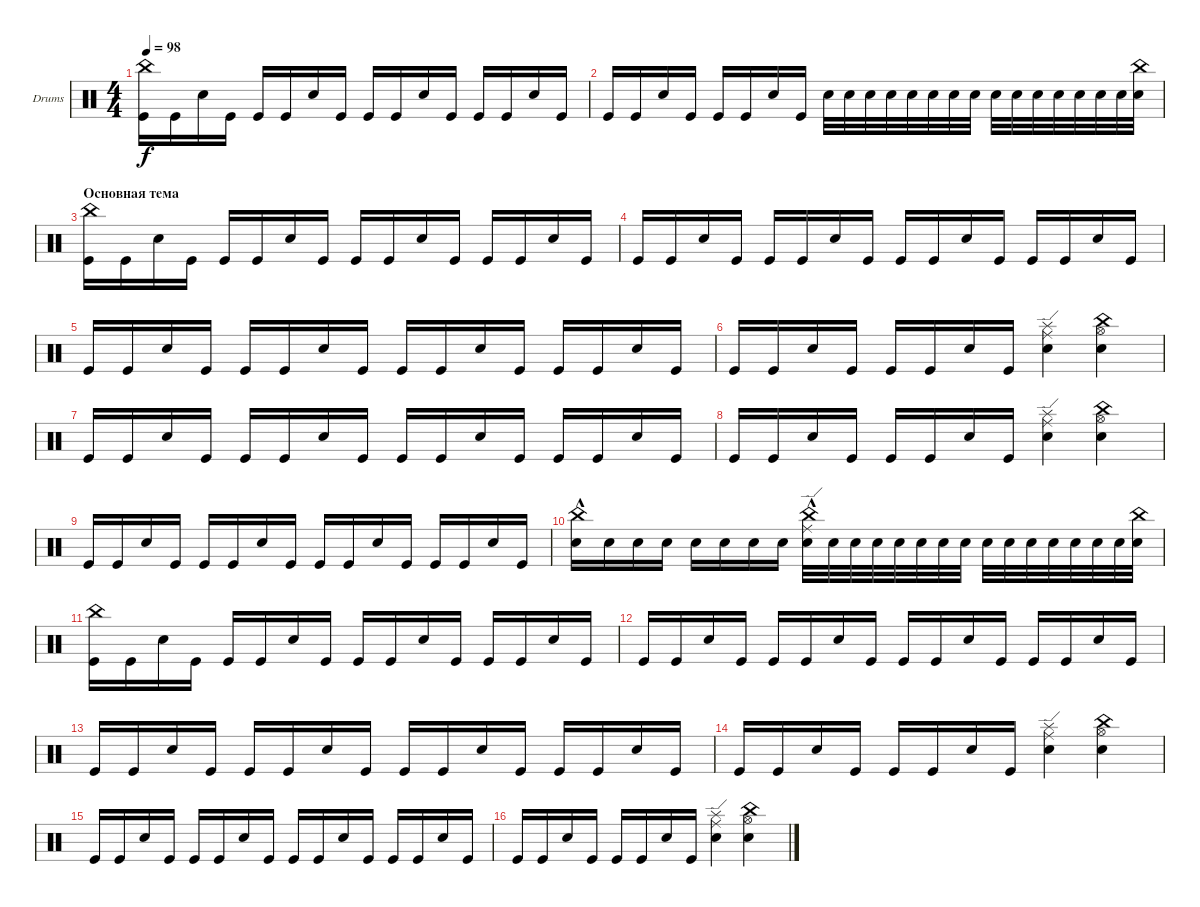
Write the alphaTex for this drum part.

\defaultSystemsLayout 4
\bracketExtendMode groupsimilarinstruments
\firstSystemTrackNameOrientation horizontal
\otherSystemsTrackNameOrientation horizontal
\track ("Drumkit" "Drums") {instrument percussion}
\staff {score}
\articulation defaults
\ts (4 4)
\tempo 98
\clef neutral
\ks c
("Kick (hit)" "China (hit)").16{dy f} "Kick (hit)".16 "Snare (hit) 2".16 "Kick (hit)".16 "Kick (hit)".16 "Kick (hit)".16 "Snare (hit) 2".16 "Kick (hit)".16 "Kick (hit)".16 "Kick (hit)".16 "Snare (hit) 2".16 "Kick (hit)".16 "Kick (hit)".16 "Kick (hit)".16 "Snare (hit) 2".16 "Kick (hit)".16 |
"Kick (hit)".16 "Kick (hit)".16 "Snare (hit) 2".16 "Kick (hit)".16 "Kick (hit)".16 "Kick (hit)".16 "Snare (hit) 2".16 "Kick (hit)".16 "Snare (hit) 2".32 "Snare (hit) 2".32 "Snare (hit) 2".32 "Snare (hit) 2".32 "Snare (hit) 2".32 "Snare (hit) 2".32 "Snare (hit) 2".32 "Snare (hit) 2".32 "Snare (hit) 2".32 "Snare (hit) 2".32 "Snare (hit) 2".32 "Snare (hit) 2".32 "Snare (hit) 2".32 "Snare (hit) 2".32 "Snare (hit) 2".32 ("Snare (hit) 2" "China (hit)").32 |
\section ("" "Основная тема")
("Kick (hit)" "China (hit)").16 "Kick (hit)".16 "Snare (hit) 2".16 "Kick (hit)".16 "Kick (hit)".16 "Kick (hit)".16 "Snare (hit) 2".16 "Kick (hit)".16 "Kick (hit)".16 "Kick (hit)".16 "Snare (hit) 2".16 "Kick (hit)".16 "Kick (hit)".16 "Kick (hit)".16 "Snare (hit) 2".16 "Kick (hit)".16 |
"Kick (hit)".16 "Kick (hit)".16 "Snare (hit) 2".16 "Kick (hit)".16 "Kick (hit)".16 "Kick (hit)".16 "Snare (hit) 2".16 "Kick (hit)".16 "Kick (hit)".16 "Kick (hit)".16 "Snare (hit) 2".16 "Kick (hit)".16 "Kick (hit)".16 "Kick (hit)".16 "Snare (hit) 2".16 "Kick (hit)".16 |
"Kick (hit)".16 "Kick (hit)".16 "Snare (hit) 2".16 "Kick (hit)".16 "Kick (hit)".16 "Kick (hit)".16 "Snare (hit) 2".16 "Kick (hit)".16 "Kick (hit)".16 "Kick (hit)".16 "Snare (hit) 2".16 "Kick (hit)".16 "Kick (hit)".16 "Kick (hit)".16 "Snare (hit) 2".16 "Kick (hit)".16 |
"Kick (hit)".16 "Kick (hit)".16 "Snare (hit) 2".16 "Kick (hit)".16 "Kick (hit)".16 "Kick (hit)".16 "Snare (hit) 2".16 "Kick (hit)".16 ("Snare (hit) 2" "Splash (hit)" "Ride (edge)").4 ("China (hit)" "Snare (hit) 2" "Hi-Hat (open)").4 |
"Kick (hit)".16 "Kick (hit)".16 "Snare (hit) 2".16 "Kick (hit)".16 "Kick (hit)".16 "Kick (hit)".16 "Snare (hit) 2".16 "Kick (hit)".16 "Kick (hit)".16 "Kick (hit)".16 "Snare (hit) 2".16 "Kick (hit)".16 "Kick (hit)".16 "Kick (hit)".16 "Snare (hit) 2".16 "Kick (hit)".16 |
"Kick (hit)".16 "Kick (hit)".16 "Snare (hit) 2".16 "Kick (hit)".16 "Kick (hit)".16 "Kick (hit)".16 "Snare (hit) 2".16 "Kick (hit)".16 ("Snare (hit) 2" "Splash (hit)" "Ride (edge)").4 ("China (hit)" "Snare (hit) 2" "Hi-Hat (open)").4 |
"Kick (hit)".16 "Kick (hit)".16 "Snare (hit) 2".16 "Kick (hit)".16 "Kick (hit)".16 "Kick (hit)".16 "Snare (hit) 2".16 "Kick (hit)".16 "Kick (hit)".16 "Kick (hit)".16 "Snare (hit) 2".16 "Kick (hit)".16 "Kick (hit)".16 "Kick (hit)".16 "Snare (hit) 2".16 "Kick (hit)".16 |
("Snare (hit) 2" "China (hit)"{hac}).16 "Snare (hit) 2".16 "Snare (hit) 2".16 "Snare (hit) 2".16 "Snare (hit) 2".16 "Snare (hit) 2".16 "Snare (hit) 2".16 "Snare (hit) 2".16 ("Snare (hit) 2" "China (hit)"{hac} "Ride (edge)").32 "Snare (hit) 2".32 "Snare (hit) 2".32 "Snare (hit) 2".32 "Snare (hit) 2".32 "Snare (hit) 2".32 "Snare (hit) 2".32 "Snare (hit) 2".32 "Snare (hit) 2".32 "Snare (hit) 2".32 "Snare (hit) 2".32 "Snare (hit) 2".32 "Snare (hit) 2".32 "Snare (hit) 2".32 "Snare (hit) 2".32 ("Snare (hit) 2" "China (hit)").32 |
("Kick (hit)" "China (hit)").16 "Kick (hit)".16 "Snare (hit) 2".16 "Kick (hit)".16 "Kick (hit)".16 "Kick (hit)".16 "Snare (hit) 2".16 "Kick (hit)".16 "Kick (hit)".16 "Kick (hit)".16 "Snare (hit) 2".16 "Kick (hit)".16 "Kick (hit)".16 "Kick (hit)".16 "Snare (hit) 2".16 "Kick (hit)".16 |
"Kick (hit)".16 "Kick (hit)".16 "Snare (hit) 2".16 "Kick (hit)".16 "Kick (hit)".16 "Kick (hit)".16 "Snare (hit) 2".16 "Kick (hit)".16 "Kick (hit)".16 "Kick (hit)".16 "Snare (hit) 2".16 "Kick (hit)".16 "Kick (hit)".16 "Kick (hit)".16 "Snare (hit) 2".16 "Kick (hit)".16 |
"Kick (hit)".16 "Kick (hit)".16 "Snare (hit) 2".16 "Kick (hit)".16 "Kick (hit)".16 "Kick (hit)".16 "Snare (hit) 2".16 "Kick (hit)".16 "Kick (hit)".16 "Kick (hit)".16 "Snare (hit) 2".16 "Kick (hit)".16 "Kick (hit)".16 "Kick (hit)".16 "Snare (hit) 2".16 "Kick (hit)".16 |
"Kick (hit)".16 "Kick (hit)".16 "Snare (hit) 2".16 "Kick (hit)".16 "Kick (hit)".16 "Kick (hit)".16 "Snare (hit) 2".16 "Kick (hit)".16 ("Snare (hit) 2" "Splash (hit)" "Ride (edge)").4 ("China (hit)" "Snare (hit) 2" "Hi-Hat (open)").4 |
"Kick (hit)".16 "Kick (hit)".16 "Snare (hit) 2".16 "Kick (hit)".16 "Kick (hit)".16 "Kick (hit)".16 "Snare (hit) 2".16 "Kick (hit)".16 "Kick (hit)".16 "Kick (hit)".16 "Snare (hit) 2".16 "Kick (hit)".16 "Kick (hit)".16 "Kick (hit)".16 "Snare (hit) 2".16 "Kick (hit)".16 |
"Kick (hit)".16 "Kick (hit)".16 "Snare (hit) 2".16 "Kick (hit)".16 "Kick (hit)".16 "Kick (hit)".16 "Snare (hit) 2".16 "Kick (hit)".16 ("Snare (hit) 2" "Splash (hit)" "Ride (edge)").4 ("China (hit)" "Snare (hit) 2" "Hi-Hat (open)").4
